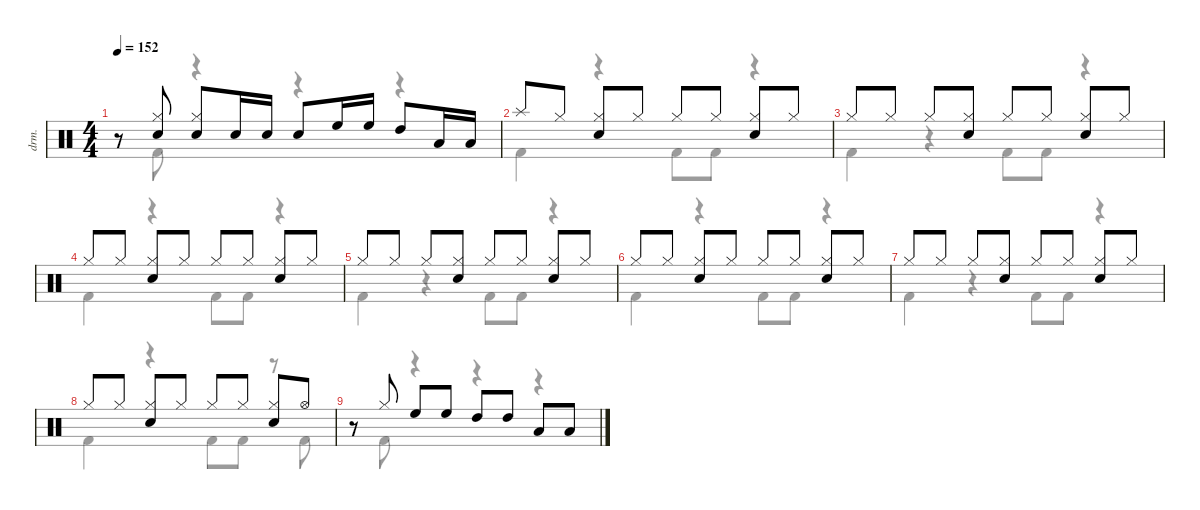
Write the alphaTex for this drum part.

\defaultSystemsLayout 4
\hideDynamics
\bracketExtendMode nobrackets
\track ("Drumkit" "drm.") {instrument percussion}
\staff {score}
\articulation defaults
\voice
\ts (4 4)
\tempo 152
\clef neutral
\ks c
r.8{dy mf beam Up} ("Hi-Hat (closed)" "Snare (hit) 2").8{beam Up} ("Snare (hit) 2" "Hi-Hat (closed)").8{beam Up} "Snare (hit) 2".16{beam Up} "Snare (hit) 2".16{beam Up} "Snare (hit) 2".8{beam Up} "High Floor Tom (hit)".16{beam Up} "High Floor Tom (hit)".16{beam Up} "High Tom (hit)".8{beam Up} "Low Tom (hit)".16{beam Up} "Low Tom (hit)".16{beam Up} |
"Splash (hit)".8{beam Up} "Hi-Hat (closed)".8{beam Up} ("Hi-Hat (closed)" "Snare (hit) 2").8{beam Up} "Hi-Hat (closed)".8{beam Up} "Hi-Hat (closed)".8{beam Up} "Hi-Hat (closed)".8{beam Up} ("Hi-Hat (closed)" "Snare (hit) 2").8{beam Up} "Hi-Hat (closed)".8{beam Up} |
"Hi-Hat (closed)".8{beam Up} "Hi-Hat (closed)".8{beam Up} "Hi-Hat (closed)".8{beam Up} ("Hi-Hat (closed)" "Snare (hit) 2").8{beam Up} "Hi-Hat (closed)".8{beam Up} "Hi-Hat (closed)".8{beam Up} ("Hi-Hat (closed)" "Snare (hit) 2").8{beam Up} "Hi-Hat (closed)".8{beam Up} |
"Hi-Hat (closed)".8{beam Up} "Hi-Hat (closed)".8{beam Up} ("Hi-Hat (closed)" "Snare (hit) 2").8{beam Up} "Hi-Hat (closed)".8{beam Up} "Hi-Hat (closed)".8{beam Up} "Hi-Hat (closed)".8{beam Up} ("Hi-Hat (closed)" "Snare (hit) 2").8{beam Up} "Hi-Hat (closed)".8{beam Up} |
"Hi-Hat (closed)".8{beam Up} "Hi-Hat (closed)".8{beam Up} "Hi-Hat (closed)".8{beam Up} ("Hi-Hat (closed)" "Snare (hit) 2").8{beam Up} "Hi-Hat (closed)".8{beam Up} "Hi-Hat (closed)".8{beam Up} ("Hi-Hat (closed)" "Snare (hit) 2").8{beam Up} "Hi-Hat (closed)".8{beam Up} |
"Hi-Hat (closed)".8{beam Up} "Hi-Hat (closed)".8{beam Up} ("Hi-Hat (closed)" "Snare (hit) 2").8{beam Up} "Hi-Hat (closed)".8{beam Up} "Hi-Hat (closed)".8{beam Up} "Hi-Hat (closed)".8{beam Up} ("Hi-Hat (closed)" "Snare (hit) 2").8{beam Up} "Hi-Hat (closed)".8{beam Up} |
"Hi-Hat (closed)".8{beam Up} "Hi-Hat (closed)".8{beam Up} "Hi-Hat (closed)".8{beam Up} ("Hi-Hat (closed)" "Snare (hit) 2").8{beam Up} "Hi-Hat (closed)".8{beam Up} "Hi-Hat (closed)".8{beam Up} ("Hi-Hat (closed)" "Snare (hit) 2").8{beam Up} "Hi-Hat (closed)".8{beam Up} |
"Hi-Hat (closed)".8{beam Up} "Hi-Hat (closed)".8{beam Up} ("Hi-Hat (closed)" "Snare (hit) 2").8{beam Up} "Hi-Hat (closed)".8{beam Up} "Hi-Hat (closed)".8{beam Up} "Hi-Hat (closed)".8{beam Up} ("Hi-Hat (closed)" "Snare (hit) 2").8{beam Up} "Hi-Hat (open)".8{beam Up} |
r.8{beam Up} "Hi-Hat (closed)".8{beam Up} "High Floor Tom (hit)".8{beam Up} "High Floor Tom (hit)".8{beam Up} "High Tom (hit)".8{beam Up} "High Tom (hit)".8{beam Up} "Low Tom (hit)".8{beam Up} "Low Tom (hit)".8{beam Up} |
\voice
\clef neutral
\ottava regular
\simile none
\ks c
r.8{dy mf beam Down} "Kick (hit) 2".8{beam Down} r.4{beam Down} r.4{beam Down} r.4{beam Down} |
"Kick (hit) 2".4{beam Down} r.4{beam Down} "Kick (hit) 2".8{beam Down} "Kick (hit) 2".8{beam Down} r.4{beam Down} |
"Kick (hit) 2".4{beam Down} r.4{beam Down} "Kick (hit) 2".8{beam Down} "Kick (hit) 2".8{beam Down} r.4{beam Down} |
"Kick (hit) 2".4{beam Down} r.4{beam Down} "Kick (hit) 2".8{beam Down} "Kick (hit) 2".8{beam Down} r.4{beam Down} |
"Kick (hit) 2".4{beam Down} r.4{beam Down} "Kick (hit) 2".8{beam Down} "Kick (hit) 2".8{beam Down} r.4{beam Down} |
"Kick (hit) 2".4{beam Down} r.4{beam Down} "Kick (hit) 2".8{beam Down} "Kick (hit) 2".8{beam Down} r.4{beam Down} |
"Kick (hit) 2".4{beam Down} r.4{beam Down} "Kick (hit) 2".8{beam Down} "Kick (hit) 2".8{beam Down} r.4{beam Down} |
"Kick (hit) 2".4{beam Down} r.4{beam Down} "Kick (hit) 2".8{beam Down} "Kick (hit) 2".8{beam Down} r.8{beam Down} "Kick (hit) 2".8{beam Down} |
r.8{beam Down} "Kick (hit) 2".8{beam Down} r.4{beam Down} r.4{beam Down} r.4{beam Down} |
